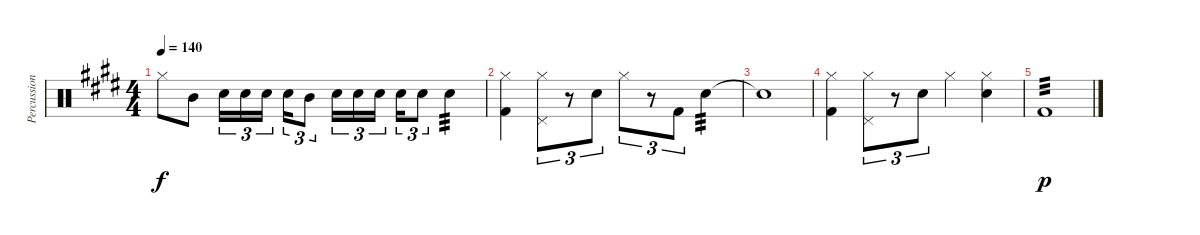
\track ("Percussion" "Percussion") {instrument percussion}
\staff {score}
\articulation defaults
\ts (4 4)
\tempo 140
\clef neutral
\ks e "Hi-Hat (closed)".8{dy f} "Mid Tom (hit)".8 "Snare (hit) 2".16{tu (3 2)} "Snare (hit) 2".16{tu (3 2)} "Snare (hit) 2".16{tu (3 2) beam splitsecondary} "Snare (hit) 2".16{tu (3 2)} "Mid Tom (hit)".8{tu (3 2)} "Snare (hit) 2".16{tu (3 2)} "Snare (hit) 2".16{tu (3 2)} "Snare (hit) 2".16{tu (3 2) beam splitsecondary} "Snare (hit) 2".16{tu (3 2)} "Snare (hit) 2".8{tu (3 2)} "Snare (hit) 2".4{tp 3}
|
("Hi-Hat (closed)" "Kick (hit) 2").4 ("Hi-Hat (closed)" "Pedal Hi-Hat (hit)").8{tu (3 2)} r.8{tu (3 2)} "Snare (hit) 2".8{tu (3 2)} "Hi-Hat (closed)".8{tu (3 2)} r.8{tu (3 2)} "Kick (hit) 2".8{tu (3 2)} "Snare (hit) 2".4{tp 3} |
"Snare (hit)"{t}.1 |
("Hi-Hat (closed)" "Kick (hit) 2").4 ("Hi-Hat (closed)" "Pedal Hi-Hat (hit)").8{tu (3 2)} r.8{tu (3 2)} "Snare (hit) 2".8{tu (3 2)} "Hi-Hat (closed)".4 ("Hi-Hat (closed)" "Snare (hit) 2").4 |
"Kick (hit) 2".1{tp 3 dy p}
